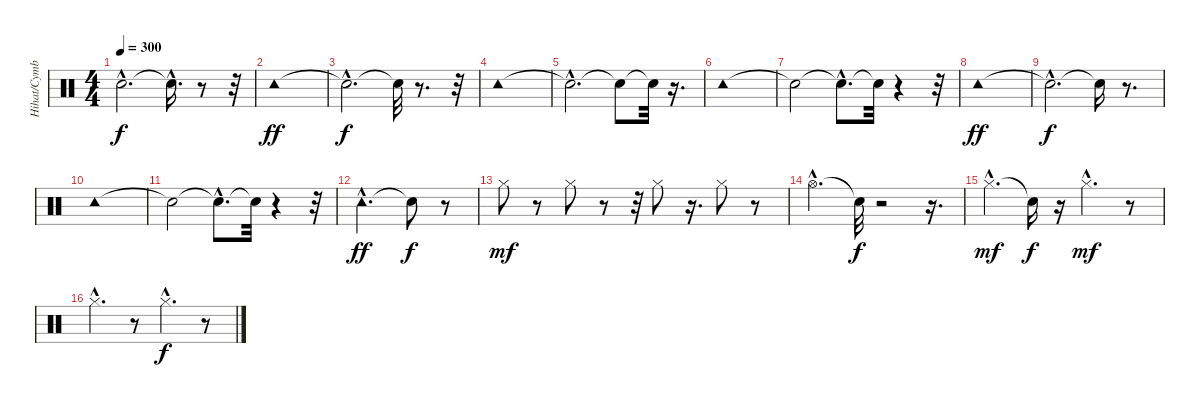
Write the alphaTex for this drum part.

\track ("Hihat/Cymbals/Tambourine" "Hihat/Cymb") {instrument percussion}
\staff {score}
\articulation defaults
\ts (4 4)
\tempo 300
\clef neutral
\ks c "Snare (hit)"{hac t}.2{d dy f} "Snare (hit)"{hac t}.16{d}
r.8 r.32 |
"Tambourine (hit)".1{dy ff} |
"Snare (hit)"{hac t}.2{d dy f} "Snare (hit)"{t}.32 r.8{d} r.32 |
"Tambourine (hit)".1 |
"Snare (hit)"{hac t}.2{d} "Snare (hit)"{t}.8 "Snare (hit)"{t}.32 r.16{d} |
"Tambourine (hit)".1 |
"Snare (hit)"{t}.2 "Snare (hit)"{hac t}.8{d} "Snare (hit)"{t}.32 r.4 r.32 |
"Tambourine (hit)".1{dy ff} |
"Snare (hit)"{hac t}.2{d dy f} "Snare (hit)"{t}.16 r.8{d} |
"Tambourine (hit)".1 |
"Snare (hit)"{t}.2 "Snare (hit)"{hac t}.8{d} "Snare (hit)"{t}.32 r.4 r.32 |
"Tambourine (hit)"{hac}.2{d dy ff} "Snare (hit)"{t}.8{dy f} r.8 |
"Hi-Hat (closed)".8{dy mf} r.8 "Hi-Hat (closed)".8 r.8 r.32 "Hi-Hat (closed)".8 r.16{d} "Hi-Hat (closed)".8 r.8 |
"Hi-Hat (open)"{hac}.4{d} "Snare (hit)"{t}.32{dy f} r.2 r.16{d} |
"Hi-Hat (closed)"{hac}.4{d dy mf} "Snare (hit)"{t}.16{dy f} r.16 "Hi-Hat (closed)"{hac}.4{d dy mf} r.8 |
"Hi-Hat (closed)"{hac}.4{d} r.8 "Hi-Hat (closed)"{hac}.4{d dy f} r.8
